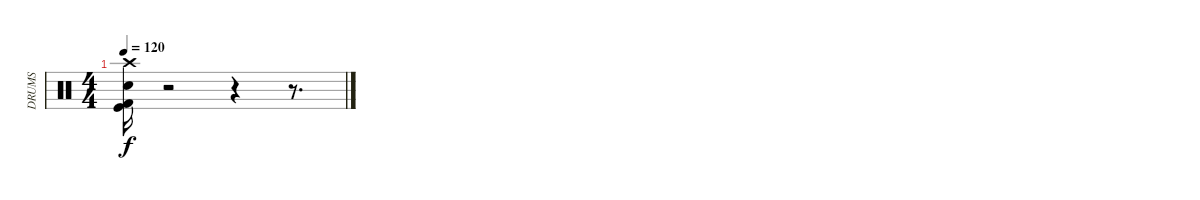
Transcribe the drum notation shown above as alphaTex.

\track ("DRUMS" "DRUMS") {instrument percussion}
\staff {score}
\articulation defaults
\ts (4 4)
\tempo 120
\clef neutral
\ks c
("Crash high (hit)" "Snare (hit) 2" "Kick (hit) 2" "Kick (hit)").16{dy f} r.2 r.4 r.8{d}
